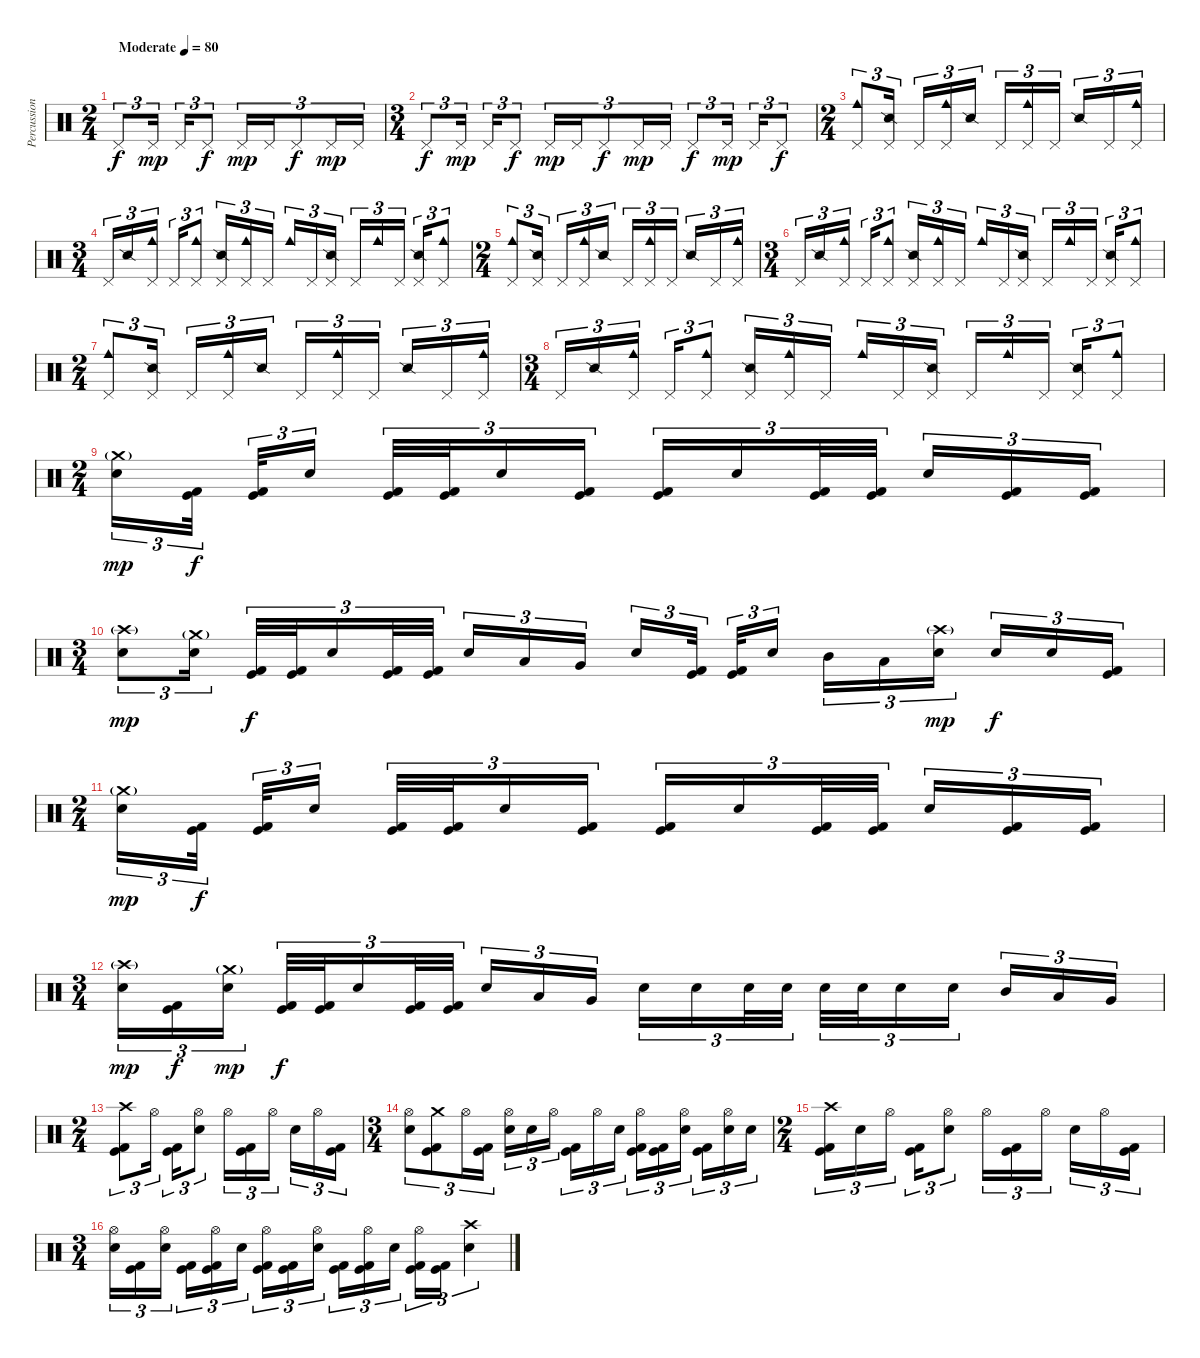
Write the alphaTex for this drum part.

\track ("Percussion" "Percussion") {instrument percussion}
\staff {score}
\articulation defaults
\ts (2 4)
\tempo (80 "Moderate")
\tempo 66
\tempo (80 "Moderate")
\clef neutral
\ks c "Pedal Hi-Hat (hit)".8{tu (3 2) dy f} "Pedal Hi-Hat (hit)".16{tu (3 2) dy mp beam splitsecondary} "Pedal Hi-Hat (hit)".16{tu (3 2)} "Pedal Hi-Hat (hit)".8{tu (3 2) dy f} "Pedal Hi-Hat (hit)".16{tu (3 2) dy mp} "Pedal Hi-Hat (hit)".16{tu (3 2)} "Pedal Hi-Hat (hit)".8{tu (3 2) dy f} "Pedal Hi-Hat (hit)".16{tu (3 2) dy mp} "Pedal Hi-Hat (hit)".16{tu (3 2)}
|
\ts (3 4)
"Pedal Hi-Hat (hit)".8{tu (3 2) dy f} "Pedal Hi-Hat (hit)".16{tu (3 2) dy mp beam splitsecondary} "Pedal Hi-Hat (hit)".16{tu (3 2)} "Pedal Hi-Hat (hit)".8{tu (3 2) dy f} "Pedal Hi-Hat (hit)".16{tu (3 2) dy mp} "Pedal Hi-Hat (hit)".16{tu (3 2)} "Pedal Hi-Hat (hit)".8{tu (3 2) dy f} "Pedal Hi-Hat (hit)".16{tu (3 2) dy mp} "Pedal Hi-Hat (hit)".16{tu (3 2)} "Pedal Hi-Hat (hit)".8{tu (3 2) dy f} "Pedal Hi-Hat (hit)".16{tu (3 2) dy mp beam splitsecondary} "Pedal Hi-Hat (hit)".16{tu (3 2)} "Pedal Hi-Hat (hit)".8{tu (3 2) dy f} |
\ts (2 4)
("Pedal Hi-Hat (hit)" "Cowbell medium (hit)").8{tu (3 2)} ("Pedal Hi-Hat (hit)" "Snare (side stick) 2").16{tu (3 2) beam splitsecondary} "Pedal Hi-Hat (hit)".16{tu (3 2)} ("Pedal Hi-Hat (hit)" "Cowbell medium (hit)").16{tu (3 2)} "Snare (side stick) 2".16{tu (3 2)} "Pedal Hi-Hat (hit)".16{tu (3 2)} ("Pedal Hi-Hat (hit)" "Cowbell medium (hit)").16{tu (3 2)} "Pedal Hi-Hat (hit)".16{tu (3 2) beam splitsecondary} "Snare (side stick) 2".16{tu (3 2)} "Pedal Hi-Hat (hit)".16{tu (3 2)} ("Pedal Hi-Hat (hit)" "Cowbell medium (hit)").16{tu (3 2)} |
\ts (3 4)
"Pedal Hi-Hat (hit)".16{tu (3 2)} "Snare (side stick) 2".16{tu (3 2)} ("Pedal Hi-Hat (hit)" "Cowbell medium (hit)").16{tu (3 2) beam splitsecondary} "Pedal Hi-Hat (hit)".16{tu (3 2)} ("Pedal Hi-Hat (hit)" "Cowbell medium (hit)").8{tu (3 2)} ("Pedal Hi-Hat (hit)" "Snare (side stick) 2").16{tu (3 2)} ("Pedal Hi-Hat (hit)" "Cowbell medium (hit)").16{tu (3 2)} "Pedal Hi-Hat (hit)".16{tu (3 2) beam splitsecondary} "Cowbell medium (hit)".16{tu (3 2)} "Pedal Hi-Hat (hit)".16{tu (3 2)} ("Pedal Hi-Hat (hit)" "Snare (side stick) 2").16{tu (3 2)} "Pedal Hi-Hat (hit)".16{tu (3 2)} "Cowbell medium (hit)".16{tu (3 2)} "Pedal Hi-Hat (hit)".16{tu (3 2) beam splitsecondary} ("Pedal Hi-Hat (hit)" "Snare (side stick) 2").16{tu (3 2)} ("Pedal Hi-Hat (hit)" "Cowbell medium (hit)").8{tu (3 2)} |
\ts (2 4)
("Pedal Hi-Hat (hit)" "Cowbell medium (hit)").8{tu (3 2)} ("Pedal Hi-Hat (hit)" "Snare (side stick) 2").16{tu (3 2) beam splitsecondary} "Pedal Hi-Hat (hit)".16{tu (3 2)} ("Pedal Hi-Hat (hit)" "Cowbell medium (hit)").16{tu (3 2)} "Snare (side stick) 2".16{tu (3 2)} "Pedal Hi-Hat (hit)".16{tu (3 2)} ("Pedal Hi-Hat (hit)" "Cowbell medium (hit)").16{tu (3 2)} "Pedal Hi-Hat (hit)".16{tu (3 2) beam splitsecondary} "Snare (side stick) 2".16{tu (3 2)} "Pedal Hi-Hat (hit)".16{tu (3 2)} ("Pedal Hi-Hat (hit)" "Cowbell medium (hit)").16{tu (3 2)} |
\ts (3 4)
"Pedal Hi-Hat (hit)".16{tu (3 2)} "Snare (side stick) 2".16{tu (3 2)} ("Pedal Hi-Hat (hit)" "Cowbell medium (hit)").16{tu (3 2) beam splitsecondary} "Pedal Hi-Hat (hit)".16{tu (3 2)} ("Pedal Hi-Hat (hit)" "Cowbell medium (hit)").8{tu (3 2)} ("Pedal Hi-Hat (hit)" "Snare (side stick) 2").16{tu (3 2)} ("Pedal Hi-Hat (hit)" "Cowbell medium (hit)").16{tu (3 2)} "Pedal Hi-Hat (hit)".16{tu (3 2) beam splitsecondary} "Cowbell medium (hit)".16{tu (3 2)} "Pedal Hi-Hat (hit)".16{tu (3 2)} ("Pedal Hi-Hat (hit)" "Snare (side stick) 2").16{tu (3 2)} "Pedal Hi-Hat (hit)".16{tu (3 2)} "Cowbell medium (hit)".16{tu (3 2)} "Pedal Hi-Hat (hit)".16{tu (3 2) beam splitsecondary} ("Pedal Hi-Hat (hit)" "Snare (side stick) 2").16{tu (3 2)} ("Pedal Hi-Hat (hit)" "Cowbell medium (hit)").8{tu (3 2)} |
\ts (2 4)
("Pedal Hi-Hat (hit)" "Cowbell medium (hit)").8{tu (3 2)} ("Pedal Hi-Hat (hit)" "Snare (side stick) 2").16{tu (3 2) beam splitsecondary} "Pedal Hi-Hat (hit)".16{tu (3 2)} ("Pedal Hi-Hat (hit)" "Cowbell medium (hit)").16{tu (3 2)} "Snare (side stick) 2".16{tu (3 2)} "Pedal Hi-Hat (hit)".16{tu (3 2)} ("Pedal Hi-Hat (hit)" "Cowbell medium (hit)").16{tu (3 2)} "Pedal Hi-Hat (hit)".16{tu (3 2) beam splitsecondary} "Snare (side stick) 2".16{tu (3 2)} "Pedal Hi-Hat (hit)".16{tu (3 2)} ("Pedal Hi-Hat (hit)" "Cowbell medium (hit)").16{tu (3 2)} |
\ts (3 4)
"Pedal Hi-Hat (hit)".16{tu (3 2)} "Snare (side stick) 2".16{tu (3 2)} ("Pedal Hi-Hat (hit)" "Cowbell medium (hit)").16{tu (3 2) beam splitsecondary} "Pedal Hi-Hat (hit)".16{tu (3 2)} ("Pedal Hi-Hat (hit)" "Cowbell medium (hit)").8{tu (3 2)} ("Pedal Hi-Hat (hit)" "Snare (side stick) 2").16{tu (3 2)} ("Pedal Hi-Hat (hit)" "Cowbell medium (hit)").16{tu (3 2)} "Pedal Hi-Hat (hit)".16{tu (3 2) beam splitsecondary} "Cowbell medium (hit)".16{tu (3 2)} "Pedal Hi-Hat (hit)".16{tu (3 2)} ("Pedal Hi-Hat (hit)" "Snare (side stick) 2").16{tu (3 2)} "Pedal Hi-Hat (hit)".16{tu (3 2)} "Cowbell medium (hit)".16{tu (3 2)} "Pedal Hi-Hat (hit)".16{tu (3 2) beam splitsecondary} ("Pedal Hi-Hat (hit)" "Snare (side stick) 2").16{tu (3 2)} ("Pedal Hi-Hat (hit)" "Cowbell medium (hit)").8{tu (3 2)} |
\ts (2 4)
("Crash medium (hit)"{g} "Electric Snare (hit)").16{tu (3 2) dy mp} ("Kick (hit)" "Kick (hit) 2").32{tu (3 2) dy f beam splitsecondary} ("Kick (hit)" "Kick (hit) 2").32{tu (3 2)} "Electric Snare (hit)".16{tu (3 2) beam splitsecondary} ("Kick (hit)" "Kick (hit) 2").32{tu (3 2)} ("Kick (hit)" "Kick (hit) 2").32{tu (3 2)} "Electric Snare (hit)".16{tu (3 2)} ("Kick (hit)" "Kick (hit) 2").16{tu (3 2)} ("Kick (hit)" "Kick (hit) 2").16{tu (3 2)} "Electric Snare (hit)".16{tu (3 2)} ("Kick (hit)" "Kick (hit) 2").32{tu (3 2)} ("Kick (hit)" "Kick (hit) 2").32{tu (3 2) beam splitsecondary} "Electric Snare (hit)".16{tu (3 2)} ("Kick (hit)" "Kick (hit) 2").16{tu (3 2)} ("Kick (hit)" "Kick (hit) 2").16{tu (3 2)} |
\ts (3 4)
("Crash high (hit)"{g} "Electric Snare (hit)").8{tu (3 2) dy mp} ("Crash medium (hit)"{g} "Electric Snare (hit)").16{tu (3 2) beam splitsecondary} ("Kick (hit)" "Kick (hit) 2").32{tu (3 2) dy f} ("Kick (hit)" "Kick (hit) 2").32{tu (3 2)} "Electric Snare (hit)".16{tu (3 2)} ("Kick (hit)" "Kick (hit) 2").32{tu (3 2)} ("Kick (hit)" "Kick (hit) 2").32{tu (3 2)} "Electric Snare (hit)".16{tu (3 2)} "Low Tom (hit)".16{tu (3 2)} "Very Low Tom (hit)".16{tu (3 2) beam splitsecondary} "Electric Snare (hit)".16{tu (3 2)} ("Kick (hit)" "Kick (hit) 2").32{tu (3 2) beam splitsecondary} ("Kick (hit)" "Kick (hit) 2").32{tu (3 2)} "Electric Snare (hit)".16{tu (3 2)} "Mid Tom (hit)".16{tu (3 2)} "Low Tom (hit)".16{tu (3 2)} ("Crash high (hit)"{g} "Electric Snare (hit)").16{tu (3 2) dy mp beam splitsecondary} "Electric Snare (hit)".16{tu (3 2) dy f} "Electric Snare (hit)".16{tu (3 2)} ("Kick (hit)" "Kick (hit) 2").16{tu (3 2)} |
\ts (2 4)
("Crash medium (hit)"{g} "Electric Snare (hit)").16{tu (3 2) dy mp} ("Kick (hit)" "Kick (hit) 2").32{tu (3 2) dy f beam splitsecondary} ("Kick (hit)" "Kick (hit) 2").32{tu (3 2)} "Electric Snare (hit)".16{tu (3 2) beam splitsecondary} ("Kick (hit)" "Kick (hit) 2").32{tu (3 2)} ("Kick (hit)" "Kick (hit) 2").32{tu (3 2)} "Electric Snare (hit)".16{tu (3 2)} ("Kick (hit)" "Kick (hit) 2").16{tu (3 2)} ("Kick (hit)" "Kick (hit) 2").16{tu (3 2)} "Electric Snare (hit)".16{tu (3 2)} ("Kick (hit)" "Kick (hit) 2").32{tu (3 2)} ("Kick (hit)" "Kick (hit) 2").32{tu (3 2) beam splitsecondary} "Electric Snare (hit)".16{tu (3 2)} ("Kick (hit)" "Kick (hit) 2").16{tu (3 2)} ("Kick (hit)" "Kick (hit) 2").16{tu (3 2)} |
\ts (3 4)
("Crash high (hit)"{g} "Electric Snare (hit)").16{tu (3 2) dy mp} ("Kick (hit)" "Kick (hit) 2").16{tu (3 2) dy f} ("Crash medium (hit)"{g} "Electric Snare (hit)").16{tu (3 2) dy mp beam splitsecondary} ("Kick (hit)" "Kick (hit) 2").32{tu (3 2) dy f} ("Kick (hit)" "Kick (hit) 2").32{tu (3 2)} "Electric Snare (hit)".16{tu (3 2)} ("Kick (hit)" "Kick (hit) 2").32{tu (3 2)} ("Kick (hit)" "Kick (hit) 2").32{tu (3 2)} "Electric Snare (hit)".16{tu (3 2)} "Low Tom (hit)".16{tu (3 2)} "Very Low Tom (hit)".16{tu (3 2) beam splitsecondary} "Electric Snare (hit)".16{tu (3 2)} "Electric Snare (hit)".16{tu (3 2)} "Electric Snare (hit)".32{tu (3 2)} "Electric Snare (hit)".32{tu (3 2)} "Electric Snare (hit)".32{tu (3 2)} "Electric Snare (hit)".32{tu (3 2)} "Electric Snare (hit)".16{tu (3 2)} "Electric Snare (hit)".16{tu (3 2) beam splitsecondary} "Mid Tom (hit)".16{tu (3 2)} "Low Tom (hit)".16{tu (3 2)} "Very Low Tom (hit)".16{tu (3 2)} |
\ts (2 4)
("Crash high (hit)" "Kick (hit)" "Kick (hit) 2").8{tu (3 2)} "Hi-Hat (open)".16{tu (3 2) beam splitsecondary} ("Kick (hit)" "Kick (hit) 2").16{tu (3 2)} ("Hi-Hat (open)" "Electric Snare (hit)").8{tu (3 2)} "Hi-Hat (open)".16{tu (3 2)} ("Kick (hit)" "Kick (hit) 2").16{tu (3 2)} "Hi-Hat (open)".16{tu (3 2) beam splitsecondary} "Electric Snare (hit)".16{tu (3 2)} "Hi-Hat (open)".16{tu (3 2)} ("Kick (hit)" "Kick (hit) 2").16{tu (3 2)} |
\ts (3 4)
("Hi-Hat (open)" "Electric Snare (hit)").8{tu (3 2)} ("Crash medium (hit)" "Kick (hit)" "Kick (hit) 2").8{tu (3 2)} "Hi-Hat (open)".16{tu (3 2)} ("Kick (hit)" "Kick (hit) 2").16{tu (3 2)} ("Hi-Hat (open)" "Electric Snare (hit)").16{tu (3 2)} "Electric Snare (hit)".16{tu (3 2)} "Hi-Hat (open)".16{tu (3 2) beam splitsecondary} ("Kick (hit)" "Kick (hit) 2").16{tu (3 2)} "Hi-Hat (open)".16{tu (3 2)} "Electric Snare (hit)".16{tu (3 2)} ("Hi-Hat (open)" "Kick (hit)" "Kick (hit) 2").16{tu (3 2)} ("Kick (hit)" "Kick (hit) 2").16{tu (3 2)} ("Hi-Hat (open)" "Electric Snare (hit)").16{tu (3 2) beam splitsecondary} ("Kick (hit)" "Kick (hit) 2").16{tu (3 2)} ("Hi-Hat (open)" "Electric Snare (hit)").16{tu (3 2)} "Electric Snare (hit)".16{tu (3 2)} |
\ts (2 4)
("Crash high (hit)" "Kick (hit)" "Kick (hit) 2").16{tu (3 2)} "Electric Snare (hit)".16{tu (3 2)} "Hi-Hat (open)".16{tu (3 2) beam splitsecondary} ("Kick (hit)" "Kick (hit) 2").16{tu (3 2)} ("Hi-Hat (open)" "Electric Snare (hit)").8{tu (3 2)} "Hi-Hat (open)".16{tu (3 2)} ("Kick (hit)" "Kick (hit) 2").16{tu (3 2)} "Hi-Hat (open)".16{tu (3 2) beam splitsecondary} "Electric Snare (hit)".16{tu (3 2)} "Hi-Hat (open)".16{tu (3 2)} ("Kick (hit)" "Kick (hit) 2").16{tu (3 2)} |
\ts (3 4)
("Hi-Hat (open)" "Electric Snare (hit)").16{tu (3 2)} ("Kick (hit)" "Kick (hit) 2").16{tu (3 2)} ("Hi-Hat (open)" "Electric Snare (hit)").16{tu (3 2) beam splitsecondary} ("Kick (hit)" "Kick (hit) 2").16{tu (3 2)} ("Hi-Hat (open)" "Kick (hit)" "Kick (hit) 2").16{tu (3 2)} "Electric Snare (hit)".16{tu (3 2)} ("Hi-Hat (open)" "Kick (hit)" "Kick (hit) 2").16{tu (3 2)} ("Kick (hit)" "Kick (hit) 2").16{tu (3 2)} ("Hi-Hat (open)" "Electric Snare (hit)").16{tu (3 2) beam splitsecondary} ("Kick (hit)" "Kick (hit) 2").16{tu (3 2)} ("Hi-Hat (open)" "Kick (hit)" "Kick (hit) 2").16{tu (3 2)} "Electric Snare (hit)".16{tu (3 2)} ("Hi-Hat (open)" "Kick (hit)" "Kick (hit) 2").16{tu (3 2)} ("Kick (hit)" "Kick (hit) 2").16{tu (3 2)} ("Crash high (hit)" "Electric Snare (hit)").4{tu (3 2)}
